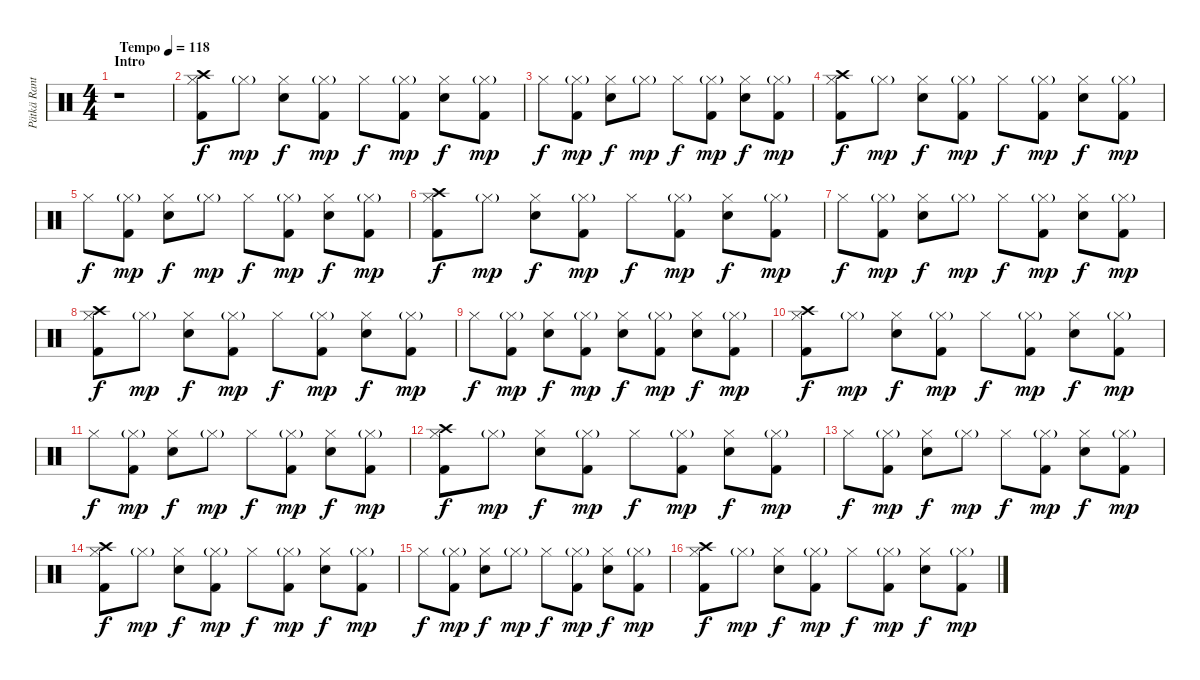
\track ("Pätkä Rantala (Drums)" "Pätkä Rant") {instrument percussion}
\staff {score}
\articulation defaults
\ts (4 4)
\section ("" "Intro")
\tempo (118 "Tempo")
\clef neutral
\ks c
r.1{dy f} |
("Crash high (hit)" "Hi-Hat (closed)" "Kick (hit) 2").8 "Hi-Hat (closed)"{g}.8{dy mp} ("Hi-Hat (closed)" "Snare (hit) 2").8{dy f} ("Hi-Hat (closed)"{g} "Kick (hit) 2").8{dy mp} "Hi-Hat (closed)".8{dy f} ("Hi-Hat (closed)"{g} "Kick (hit) 2").8{dy mp} ("Hi-Hat (closed)" "Snare (hit) 2").8{dy f} ("Hi-Hat (closed)"{g} "Kick (hit) 2").8{dy mp} |
"Hi-Hat (closed)".8{dy f} ("Hi-Hat (closed)"{g} "Kick (hit) 2").8{dy mp} ("Hi-Hat (closed)" "Snare (hit) 2").8{dy f} "Hi-Hat (closed)"{g}.8{dy mp} "Hi-Hat (closed)".8{dy f} ("Hi-Hat (closed)"{g} "Kick (hit) 2").8{dy mp} ("Hi-Hat (closed)" "Snare (hit) 2").8{dy f} ("Hi-Hat (closed)"{g} "Kick (hit) 2").8{dy mp} |
("Crash high (hit)" "Hi-Hat (closed)" "Kick (hit) 2").8{dy f} "Hi-Hat (closed)"{g}.8{dy mp} ("Hi-Hat (closed)" "Snare (hit) 2").8{dy f} ("Hi-Hat (closed)"{g} "Kick (hit) 2").8{dy mp} "Hi-Hat (closed)".8{dy f} ("Hi-Hat (closed)"{g} "Kick (hit) 2").8{dy mp} ("Hi-Hat (closed)" "Snare (hit) 2").8{dy f} ("Hi-Hat (closed)"{g} "Kick (hit) 2").8{dy mp} |
"Hi-Hat (closed)".8{dy f} ("Hi-Hat (closed)"{g} "Kick (hit) 2").8{dy mp} ("Hi-Hat (closed)" "Snare (hit) 2").8{dy f} "Hi-Hat (closed)"{g}.8{dy mp} "Hi-Hat (closed)".8{dy f} ("Hi-Hat (closed)"{g} "Kick (hit) 2").8{dy mp} ("Hi-Hat (closed)" "Snare (hit) 2").8{dy f} ("Hi-Hat (closed)"{g} "Kick (hit) 2").8{dy mp} |
("Crash high (hit)" "Hi-Hat (closed)" "Kick (hit) 2").8{dy f} "Hi-Hat (closed)"{g}.8{dy mp} ("Hi-Hat (closed)" "Snare (hit) 2").8{dy f} ("Hi-Hat (closed)"{g} "Kick (hit) 2").8{dy mp} "Hi-Hat (closed)".8{dy f} ("Hi-Hat (closed)"{g} "Kick (hit) 2").8{dy mp} ("Hi-Hat (closed)" "Snare (hit) 2").8{dy f} ("Hi-Hat (closed)"{g} "Kick (hit) 2").8{dy mp} |
"Hi-Hat (closed)".8{dy f} ("Hi-Hat (closed)"{g} "Kick (hit) 2").8{dy mp} ("Hi-Hat (closed)" "Snare (hit) 2").8{dy f} "Hi-Hat (closed)"{g}.8{dy mp} "Hi-Hat (closed)".8{dy f} ("Hi-Hat (closed)"{g} "Kick (hit) 2").8{dy mp} ("Hi-Hat (closed)" "Snare (hit) 2").8{dy f} ("Hi-Hat (closed)"{g} "Kick (hit) 2").8{dy mp} |
("Crash high (hit)" "Hi-Hat (closed)" "Kick (hit) 2").8{dy f} "Hi-Hat (closed)"{g}.8{dy mp} ("Hi-Hat (closed)" "Snare (hit) 2").8{dy f} ("Hi-Hat (closed)"{g} "Kick (hit) 2").8{dy mp} "Hi-Hat (closed)".8{dy f} ("Hi-Hat (closed)"{g} "Kick (hit) 2").8{dy mp} ("Hi-Hat (closed)" "Snare (hit) 2").8{dy f} ("Hi-Hat (closed)"{g} "Kick (hit) 2").8{dy mp} |
"Hi-Hat (closed)".8{dy f} ("Hi-Hat (closed)"{g} "Kick (hit) 2").8{dy mp} ("Hi-Hat (closed)" "Snare (hit) 2").8{dy f} ("Hi-Hat (closed)"{g} "Kick (hit) 2").8{dy mp} ("Hi-Hat (closed)" "Snare (hit) 2").8{dy f} ("Hi-Hat (closed)"{g} "Kick (hit) 2").8{dy mp} ("Hi-Hat (closed)" "Snare (hit) 2").8{dy f} ("Hi-Hat (closed)"{g} "Kick (hit) 2").8{dy mp} |
("Crash high (hit)" "Hi-Hat (closed)" "Kick (hit) 2").8{dy f} "Hi-Hat (closed)"{g}.8{dy mp} ("Hi-Hat (closed)" "Snare (hit) 2").8{dy f} ("Hi-Hat (closed)"{g} "Kick (hit) 2").8{dy mp} "Hi-Hat (closed)".8{dy f} ("Hi-Hat (closed)"{g} "Kick (hit) 2").8{dy mp} ("Hi-Hat (closed)" "Snare (hit) 2").8{dy f} ("Hi-Hat (closed)"{g} "Kick (hit) 2").8{dy mp} |
"Hi-Hat (closed)".8{dy f} ("Hi-Hat (closed)"{g} "Kick (hit) 2").8{dy mp} ("Hi-Hat (closed)" "Snare (hit) 2").8{dy f} "Hi-Hat (closed)"{g}.8{dy mp} "Hi-Hat (closed)".8{dy f} ("Hi-Hat (closed)"{g} "Kick (hit) 2").8{dy mp} ("Hi-Hat (closed)" "Snare (hit) 2").8{dy f} ("Hi-Hat (closed)"{g} "Kick (hit) 2").8{dy mp} |
("Crash high (hit)" "Hi-Hat (closed)" "Kick (hit) 2").8{dy f} "Hi-Hat (closed)"{g}.8{dy mp} ("Hi-Hat (closed)" "Snare (hit) 2").8{dy f} ("Hi-Hat (closed)"{g} "Kick (hit) 2").8{dy mp} "Hi-Hat (closed)".8{dy f} ("Hi-Hat (closed)"{g} "Kick (hit) 2").8{dy mp} ("Hi-Hat (closed)" "Snare (hit) 2").8{dy f} ("Hi-Hat (closed)"{g} "Kick (hit) 2").8{dy mp} |
"Hi-Hat (closed)".8{dy f} ("Hi-Hat (closed)"{g} "Kick (hit) 2").8{dy mp} ("Hi-Hat (closed)" "Snare (hit) 2").8{dy f} "Hi-Hat (closed)"{g}.8{dy mp} "Hi-Hat (closed)".8{dy f} ("Hi-Hat (closed)"{g} "Kick (hit) 2").8{dy mp} ("Hi-Hat (closed)" "Snare (hit) 2").8{dy f} ("Hi-Hat (closed)"{g} "Kick (hit) 2").8{dy mp} |
("Crash high (hit)" "Hi-Hat (closed)" "Kick (hit) 2").8{dy f} "Hi-Hat (closed)"{g}.8{dy mp} ("Hi-Hat (closed)" "Snare (hit) 2").8{dy f} ("Hi-Hat (closed)"{g} "Kick (hit) 2").8{dy mp} "Hi-Hat (closed)".8{dy f} ("Hi-Hat (closed)"{g} "Kick (hit) 2").8{dy mp} ("Hi-Hat (closed)" "Snare (hit) 2").8{dy f} ("Hi-Hat (closed)"{g} "Kick (hit) 2").8{dy mp} |
"Hi-Hat (closed)".8{dy f} ("Hi-Hat (closed)"{g} "Kick (hit) 2").8{dy mp} ("Hi-Hat (closed)" "Snare (hit) 2").8{dy f} "Hi-Hat (closed)"{g}.8{dy mp} "Hi-Hat (closed)".8{dy f} ("Hi-Hat (closed)"{g} "Kick (hit) 2").8{dy mp} ("Hi-Hat (closed)" "Snare (hit) 2").8{dy f} ("Hi-Hat (closed)"{g} "Kick (hit) 2").8{dy mp} |
("Crash high (hit)" "Hi-Hat (closed)" "Kick (hit) 2").8{dy f} "Hi-Hat (closed)"{g}.8{dy mp} ("Hi-Hat (closed)" "Snare (hit) 2").8{dy f} ("Hi-Hat (closed)"{g} "Kick (hit) 2").8{dy mp} "Hi-Hat (closed)".8{dy f} ("Hi-Hat (closed)"{g} "Kick (hit) 2").8{dy mp} ("Hi-Hat (closed)" "Snare (hit) 2").8{dy f} ("Hi-Hat (closed)"{g} "Kick (hit) 2").8{dy mp}
